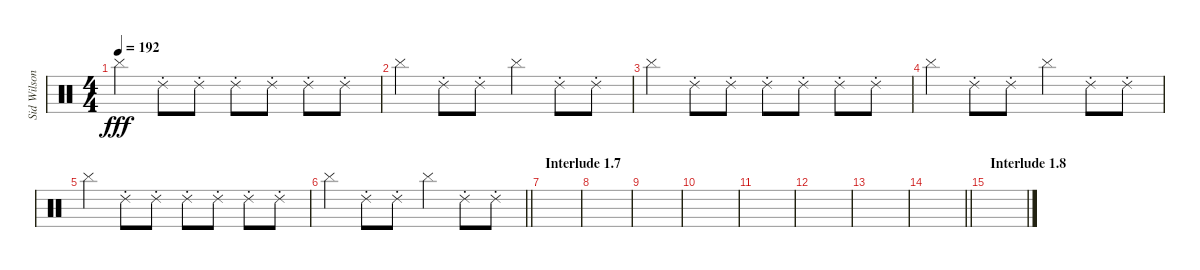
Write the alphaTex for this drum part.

\track ("Sid Wilson" "Sid Wilson") {instrument percussion}
\staff {score}
\articulation defaults
\ts (4 4)
\tempo 192
\clef neutral
\ks c "Cymbal (hit)".4{dy fff} "Ride (choke) 2".8 "Ride (choke) 2".8 "Ride (choke) 2".8 "Ride (choke) 2".8 "Ride (choke) 2".8 "Ride (choke) 2".8
|
"Cymbal (hit)".4 "Ride (choke) 2".8 "Ride (choke) 2".8 "Cymbal (hit)".4 "Ride (choke) 2".8 "Ride (choke) 2".8 |
"Cymbal (hit)".4 "Ride (choke) 2".8 "Ride (choke) 2".8 "Ride (choke) 2".8 "Ride (choke) 2".8 "Ride (choke) 2".8 "Ride (choke) 2".8 |
"Cymbal (hit)".4 "Ride (choke) 2".8 "Ride (choke) 2".8 "Cymbal (hit)".4 "Ride (choke) 2".8 "Ride (choke) 2".8 |
"Cymbal (hit)".4 "Ride (choke) 2".8 "Ride (choke) 2".8 "Ride (choke) 2".8 "Ride (choke) 2".8 "Ride (choke) 2".8 "Ride (choke) 2".8 |
\barLineRight lightlight "Cymbal (hit)".4 "Ride (choke) 2".8 "Ride (choke) 2".8 "Cymbal (hit)".4 "Ride (choke) 2".8 "Ride (choke) 2".8
|
\section ("" "Interlude 1.7")
|
|
|
|
|
|
|
\barLineRight lightlight
|
\section ("" "Interlude 1.8")
